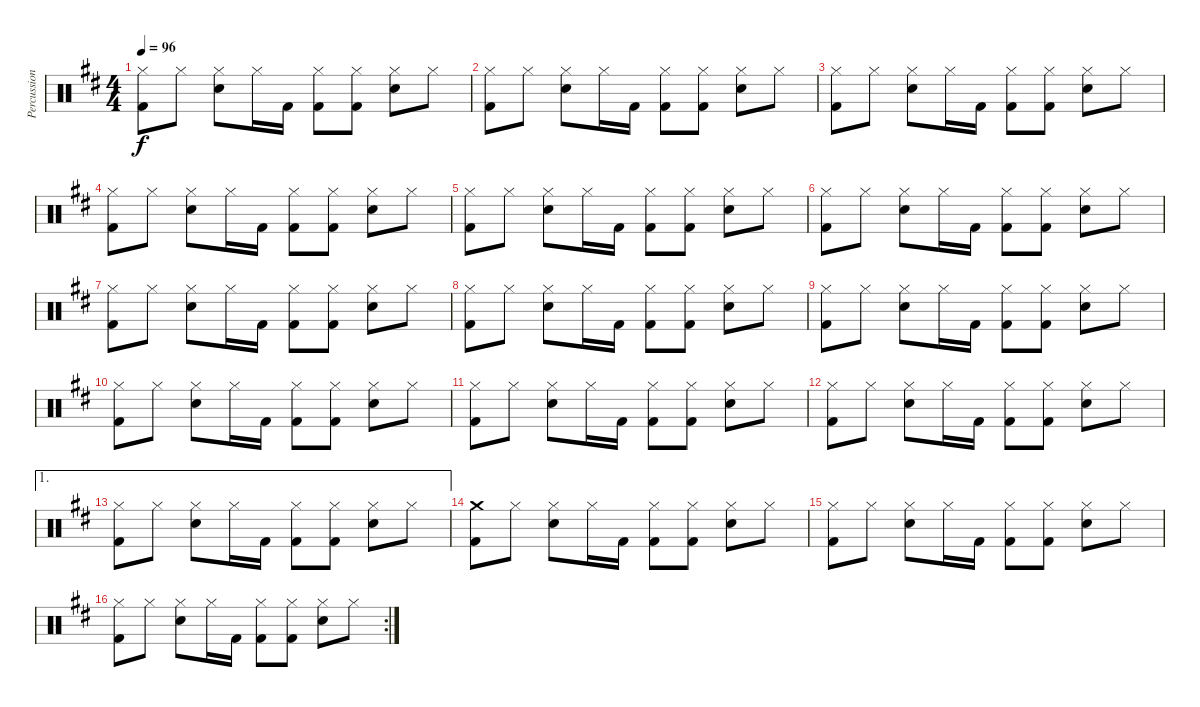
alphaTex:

\track ("Percussion" "Percussion") {instrument percussion}
\staff {score}
\articulation defaults
\ts (4 4)
\tempo 96
\clef neutral
\ks d
("Hi-Hat (closed)" "Kick (hit) 2").8{dy f} "Hi-Hat (closed)".8 ("Hi-Hat (closed)" "Snare (hit) 2").8 "Hi-Hat (closed)".16 "Kick (hit) 2".16 ("Hi-Hat (closed)" "Kick (hit) 2").8 ("Hi-Hat (closed)" "Kick (hit) 2").8 ("Hi-Hat (closed)" "Snare (hit) 2").8 "Hi-Hat (closed)".8 |
("Hi-Hat (closed)" "Kick (hit) 2").8 "Hi-Hat (closed)".8 ("Hi-Hat (closed)" "Snare (hit) 2").8 "Hi-Hat (closed)".16 "Kick (hit) 2".16 ("Hi-Hat (closed)" "Kick (hit) 2").8 ("Hi-Hat (closed)" "Kick (hit) 2").8 ("Hi-Hat (closed)" "Snare (hit) 2").8 "Hi-Hat (closed)".8 |
("Hi-Hat (closed)" "Kick (hit) 2").8 "Hi-Hat (closed)".8 ("Hi-Hat (closed)" "Snare (hit) 2").8 "Hi-Hat (closed)".16 "Kick (hit) 2".16 ("Hi-Hat (closed)" "Kick (hit) 2").8 ("Hi-Hat (closed)" "Kick (hit) 2").8 ("Hi-Hat (closed)" "Snare (hit) 2").8 "Hi-Hat (closed)".8 |
("Hi-Hat (closed)" "Kick (hit) 2").8 "Hi-Hat (closed)".8 ("Hi-Hat (closed)" "Snare (hit) 2").8 "Hi-Hat (closed)".16 "Kick (hit) 2".16 ("Hi-Hat (closed)" "Kick (hit) 2").8 ("Hi-Hat (closed)" "Kick (hit) 2").8 ("Hi-Hat (closed)" "Snare (hit) 2").8 "Hi-Hat (closed)".8 |
("Hi-Hat (closed)" "Kick (hit) 2").8 "Hi-Hat (closed)".8 ("Hi-Hat (closed)" "Snare (hit) 2").8 "Hi-Hat (closed)".16 "Kick (hit) 2".16 ("Hi-Hat (closed)" "Kick (hit) 2").8 ("Hi-Hat (closed)" "Kick (hit) 2").8 ("Hi-Hat (closed)" "Snare (hit) 2").8 "Hi-Hat (closed)".8 |
("Hi-Hat (closed)" "Kick (hit) 2").8 "Hi-Hat (closed)".8 ("Hi-Hat (closed)" "Snare (hit) 2").8 "Hi-Hat (closed)".16 "Kick (hit) 2".16 ("Hi-Hat (closed)" "Kick (hit) 2").8 ("Hi-Hat (closed)" "Kick (hit) 2").8 ("Hi-Hat (closed)" "Snare (hit) 2").8 "Hi-Hat (closed)".8 |
("Hi-Hat (closed)" "Kick (hit) 2").8 "Hi-Hat (closed)".8 ("Hi-Hat (closed)" "Snare (hit) 2").8 "Hi-Hat (closed)".16 "Kick (hit) 2".16 ("Hi-Hat (closed)" "Kick (hit) 2").8 ("Hi-Hat (closed)" "Kick (hit) 2").8 ("Hi-Hat (closed)" "Snare (hit) 2").8 "Hi-Hat (closed)".8 |
("Hi-Hat (closed)" "Kick (hit) 2").8 "Hi-Hat (closed)".8 ("Hi-Hat (closed)" "Snare (hit) 2").8 "Hi-Hat (closed)".16 "Kick (hit) 2".16 ("Hi-Hat (closed)" "Kick (hit) 2").8 ("Hi-Hat (closed)" "Kick (hit) 2").8 ("Hi-Hat (closed)" "Snare (hit) 2").8 "Hi-Hat (closed)".8 |
("Hi-Hat (closed)" "Kick (hit) 2").8 "Hi-Hat (closed)".8 ("Hi-Hat (closed)" "Snare (hit) 2").8 "Hi-Hat (closed)".16 "Kick (hit) 2".16 ("Hi-Hat (closed)" "Kick (hit) 2").8 ("Hi-Hat (closed)" "Kick (hit) 2").8 ("Hi-Hat (closed)" "Snare (hit) 2").8 "Hi-Hat (closed)".8 |
("Hi-Hat (closed)" "Kick (hit) 2").8 "Hi-Hat (closed)".8 ("Hi-Hat (closed)" "Snare (hit) 2").8 "Hi-Hat (closed)".16 "Kick (hit) 2".16 ("Hi-Hat (closed)" "Kick (hit) 2").8 ("Hi-Hat (closed)" "Kick (hit) 2").8 ("Hi-Hat (closed)" "Snare (hit) 2").8 "Hi-Hat (closed)".8 |
("Hi-Hat (closed)" "Kick (hit) 2").8 "Hi-Hat (closed)".8 ("Hi-Hat (closed)" "Snare (hit) 2").8 "Hi-Hat (closed)".16 "Kick (hit) 2".16 ("Hi-Hat (closed)" "Kick (hit) 2").8 ("Hi-Hat (closed)" "Kick (hit) 2").8 ("Hi-Hat (closed)" "Snare (hit) 2").8 "Hi-Hat (closed)".8 |
("Hi-Hat (closed)" "Kick (hit) 2").8 "Hi-Hat (closed)".8 ("Hi-Hat (closed)" "Snare (hit) 2").8 "Hi-Hat (closed)".16 "Kick (hit) 2".16 ("Hi-Hat (closed)" "Kick (hit) 2").8 ("Hi-Hat (closed)" "Kick (hit) 2").8 ("Hi-Hat (closed)" "Snare (hit) 2").8 "Hi-Hat (closed)".8 |
\ae 1
("Hi-Hat (closed)" "Kick (hit) 2").8 "Hi-Hat (closed)".8 ("Hi-Hat (closed)" "Snare (hit) 2").8 "Hi-Hat (closed)".16 "Kick (hit) 2".16 ("Hi-Hat (closed)" "Kick (hit) 2").8 ("Hi-Hat (closed)" "Kick (hit) 2").8 ("Hi-Hat (closed)" "Snare (hit) 2").8 "Hi-Hat (closed)".8 |
("Crash medium (hit)" "Kick (hit) 2").8 "Hi-Hat (closed)".8 ("Hi-Hat (closed)" "Snare (hit) 2").8 "Hi-Hat (closed)".16 "Kick (hit) 2".16 ("Hi-Hat (closed)" "Kick (hit) 2").8 ("Hi-Hat (closed)" "Kick (hit) 2").8 ("Hi-Hat (closed)" "Snare (hit) 2").8 "Hi-Hat (closed)".8 |
("Hi-Hat (closed)" "Kick (hit) 2").8 "Hi-Hat (closed)".8 ("Hi-Hat (closed)" "Snare (hit) 2").8 "Hi-Hat (closed)".16 "Kick (hit) 2".16 ("Hi-Hat (closed)" "Kick (hit) 2").8 ("Hi-Hat (closed)" "Kick (hit) 2").8 ("Hi-Hat (closed)" "Snare (hit) 2").8 "Hi-Hat (closed)".8 |
\rc 2
("Hi-Hat (closed)" "Kick (hit) 2").8 "Hi-Hat (closed)".8 ("Hi-Hat (closed)" "Snare (hit) 2").8 "Hi-Hat (closed)".16 "Kick (hit) 2".16 ("Hi-Hat (closed)" "Kick (hit) 2").8 ("Hi-Hat (closed)" "Kick (hit) 2").8 ("Hi-Hat (closed)" "Snare (hit) 2").8 "Hi-Hat (closed)".8
